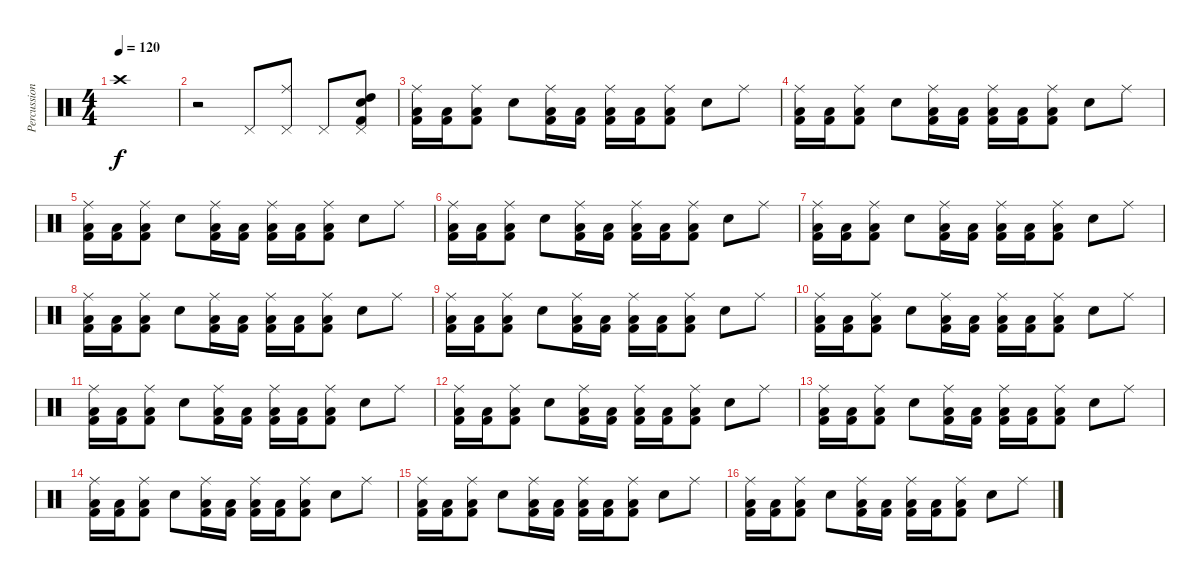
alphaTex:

\track ("Percussion" "Percussion") {instrument percussion}
\staff {score}
\articulation defaults
\ts (4 4)
\tempo 120
\clef neutral
\ks c "Crash high (hit)".1{dy f}
|
r.2 "Pedal Hi-Hat (hit)".8 ("Ride (middle)" "Pedal Hi-Hat (hit)").8 "Pedal Hi-Hat (hit)".8 ("Snare (hit) 2" "High Tom (hit)" "Pedal Hi-Hat (hit)" "Kick (hit) 2").8 |
("Ride (middle)" "Low Floor Tom (hit)" "Kick (hit) 2").16 ("Low Floor Tom (hit)" "Kick (hit) 2").16 ("Ride (middle)" "Low Floor Tom (hit)" "Kick (hit) 2").8 "Electric Snare (hit)".8 ("Ride (middle)" "Low Floor Tom (hit)" "Kick (hit) 2").16 ("Low Floor Tom (hit)" "Kick (hit) 2").16 ("Ride (middle)" "Low Floor Tom (hit)" "Kick (hit) 2").16 ("Low Floor Tom (hit)" "Kick (hit) 2").16 ("Ride (middle)" "Low Floor Tom (hit)" "Kick (hit) 2").8 "Electric Snare (hit)".8 "Ride (middle)".8 |
("Ride (middle)" "Low Floor Tom (hit)" "Kick (hit) 2").16 ("Low Floor Tom (hit)" "Kick (hit) 2").16 ("Ride (middle)" "Low Floor Tom (hit)" "Kick (hit) 2").8 "Electric Snare (hit)".8 ("Ride (middle)" "Low Floor Tom (hit)" "Kick (hit) 2").16 ("Low Floor Tom (hit)" "Kick (hit) 2").16 ("Ride (middle)" "Low Floor Tom (hit)" "Kick (hit) 2").16 ("Low Floor Tom (hit)" "Kick (hit) 2").16 ("Ride (middle)" "Low Floor Tom (hit)" "Kick (hit) 2").8 "Electric Snare (hit)".8 "Ride (middle)".8 |
("Ride (middle)" "Low Floor Tom (hit)" "Kick (hit) 2").16 ("Low Floor Tom (hit)" "Kick (hit) 2").16 ("Ride (middle)" "Low Floor Tom (hit)" "Kick (hit) 2").8 "Electric Snare (hit)".8 ("Ride (middle)" "Low Floor Tom (hit)" "Kick (hit) 2").16 ("Low Floor Tom (hit)" "Kick (hit) 2").16 ("Ride (middle)" "Low Floor Tom (hit)" "Kick (hit) 2").16 ("Low Floor Tom (hit)" "Kick (hit) 2").16 ("Ride (middle)" "Low Floor Tom (hit)" "Kick (hit) 2").8 "Electric Snare (hit)".8 "Ride (middle)".8 |
("Ride (middle)" "Low Floor Tom (hit)" "Kick (hit) 2").16 ("Low Floor Tom (hit)" "Kick (hit) 2").16 ("Ride (middle)" "Low Floor Tom (hit)" "Kick (hit) 2").8 "Electric Snare (hit)".8 ("Ride (middle)" "Low Floor Tom (hit)" "Kick (hit) 2").16 ("Low Floor Tom (hit)" "Kick (hit) 2").16 ("Ride (middle)" "Low Floor Tom (hit)" "Kick (hit) 2").16 ("Low Floor Tom (hit)" "Kick (hit) 2").16 ("Ride (middle)" "Low Floor Tom (hit)" "Kick (hit) 2").8 "Electric Snare (hit)".8 "Ride (middle)".8 |
("Ride (middle)" "Low Floor Tom (hit)" "Kick (hit) 2").16 ("Low Floor Tom (hit)" "Kick (hit) 2").16 ("Ride (middle)" "Low Floor Tom (hit)" "Kick (hit) 2").8 "Electric Snare (hit)".8 ("Ride (middle)" "Low Floor Tom (hit)" "Kick (hit) 2").16 ("Low Floor Tom (hit)" "Kick (hit) 2").16 ("Ride (middle)" "Low Floor Tom (hit)" "Kick (hit) 2").16 ("Low Floor Tom (hit)" "Kick (hit) 2").16 ("Ride (middle)" "Low Floor Tom (hit)" "Kick (hit) 2").8 "Electric Snare (hit)".8 "Ride (middle)".8 |
("Ride (middle)" "Low Floor Tom (hit)" "Kick (hit) 2").16 ("Low Floor Tom (hit)" "Kick (hit) 2").16 ("Ride (middle)" "Low Floor Tom (hit)" "Kick (hit) 2").8 "Electric Snare (hit)".8 ("Ride (middle)" "Low Floor Tom (hit)" "Kick (hit) 2").16 ("Low Floor Tom (hit)" "Kick (hit) 2").16 ("Ride (middle)" "Low Floor Tom (hit)" "Kick (hit) 2").16 ("Low Floor Tom (hit)" "Kick (hit) 2").16 ("Ride (middle)" "Low Floor Tom (hit)" "Kick (hit) 2").8 "Electric Snare (hit)".8 "Ride (middle)".8 |
("Ride (middle)" "Low Floor Tom (hit)" "Kick (hit) 2").16 ("Low Floor Tom (hit)" "Kick (hit) 2").16 ("Ride (middle)" "Low Floor Tom (hit)" "Kick (hit) 2").8 "Electric Snare (hit)".8 ("Ride (middle)" "Low Floor Tom (hit)" "Kick (hit) 2").16 ("Low Floor Tom (hit)" "Kick (hit) 2").16 ("Ride (middle)" "Low Floor Tom (hit)" "Kick (hit) 2").16 ("Low Floor Tom (hit)" "Kick (hit) 2").16 ("Ride (middle)" "Low Floor Tom (hit)" "Kick (hit) 2").8 "Electric Snare (hit)".8 "Ride (middle)".8 |
("Ride (middle)" "Low Floor Tom (hit)" "Kick (hit) 2").16 ("Low Floor Tom (hit)" "Kick (hit) 2").16 ("Ride (middle)" "Low Floor Tom (hit)" "Kick (hit) 2").8 "Electric Snare (hit)".8 ("Ride (middle)" "Low Floor Tom (hit)" "Kick (hit) 2").16 ("Low Floor Tom (hit)" "Kick (hit) 2").16 ("Ride (middle)" "Low Floor Tom (hit)" "Kick (hit) 2").16 ("Low Floor Tom (hit)" "Kick (hit) 2").16 ("Ride (middle)" "Low Floor Tom (hit)" "Kick (hit) 2").8 "Electric Snare (hit)".8 "Ride (middle)".8 |
("Ride (middle)" "Low Floor Tom (hit)" "Kick (hit) 2").16 ("Low Floor Tom (hit)" "Kick (hit) 2").16 ("Ride (middle)" "Low Floor Tom (hit)" "Kick (hit) 2").8 "Electric Snare (hit)".8 ("Ride (middle)" "Low Floor Tom (hit)" "Kick (hit) 2").16 ("Low Floor Tom (hit)" "Kick (hit) 2").16 ("Ride (middle)" "Low Floor Tom (hit)" "Kick (hit) 2").16 ("Low Floor Tom (hit)" "Kick (hit) 2").16 ("Ride (middle)" "Low Floor Tom (hit)" "Kick (hit) 2").8 "Electric Snare (hit)".8 "Ride (middle)".8 |
("Ride (middle)" "Low Floor Tom (hit)" "Kick (hit) 2").16 ("Low Floor Tom (hit)" "Kick (hit) 2").16 ("Ride (middle)" "Low Floor Tom (hit)" "Kick (hit) 2").8 "Electric Snare (hit)".8 ("Ride (middle)" "Low Floor Tom (hit)" "Kick (hit) 2").16 ("Low Floor Tom (hit)" "Kick (hit) 2").16 ("Ride (middle)" "Low Floor Tom (hit)" "Kick (hit) 2").16 ("Low Floor Tom (hit)" "Kick (hit) 2").16 ("Ride (middle)" "Low Floor Tom (hit)" "Kick (hit) 2").8 "Electric Snare (hit)".8 "Ride (middle)".8 |
("Ride (middle)" "Low Floor Tom (hit)" "Kick (hit) 2").16 ("Low Floor Tom (hit)" "Kick (hit) 2").16 ("Ride (middle)" "Low Floor Tom (hit)" "Kick (hit) 2").8 "Electric Snare (hit)".8 ("Ride (middle)" "Low Floor Tom (hit)" "Kick (hit) 2").16 ("Low Floor Tom (hit)" "Kick (hit) 2").16 ("Ride (middle)" "Low Floor Tom (hit)" "Kick (hit) 2").16 ("Low Floor Tom (hit)" "Kick (hit) 2").16 ("Ride (middle)" "Low Floor Tom (hit)" "Kick (hit) 2").8 "Electric Snare (hit)".8 "Ride (middle)".8 |
("Ride (middle)" "Low Floor Tom (hit)" "Kick (hit) 2").16 ("Low Floor Tom (hit)" "Kick (hit) 2").16 ("Ride (middle)" "Low Floor Tom (hit)" "Kick (hit) 2").8 "Electric Snare (hit)".8 ("Ride (middle)" "Low Floor Tom (hit)" "Kick (hit) 2").16 ("Low Floor Tom (hit)" "Kick (hit) 2").16 ("Ride (middle)" "Low Floor Tom (hit)" "Kick (hit) 2").16 ("Low Floor Tom (hit)" "Kick (hit) 2").16 ("Ride (middle)" "Low Floor Tom (hit)" "Kick (hit) 2").8 "Electric Snare (hit)".8 "Ride (middle)".8 |
("Ride (middle)" "Low Floor Tom (hit)" "Kick (hit) 2").16 ("Low Floor Tom (hit)" "Kick (hit) 2").16 ("Ride (middle)" "Low Floor Tom (hit)" "Kick (hit) 2").8 "Electric Snare (hit)".8 ("Ride (middle)" "Low Floor Tom (hit)" "Kick (hit) 2").16 ("Low Floor Tom (hit)" "Kick (hit) 2").16 ("Ride (middle)" "Low Floor Tom (hit)" "Kick (hit) 2").16 ("Low Floor Tom (hit)" "Kick (hit) 2").16 ("Ride (middle)" "Low Floor Tom (hit)" "Kick (hit) 2").8 "Electric Snare (hit)".8 "Ride (middle)".8 |
("Ride (middle)" "Low Floor Tom (hit)" "Kick (hit) 2").16 ("Low Floor Tom (hit)" "Kick (hit) 2").16 ("Ride (middle)" "Low Floor Tom (hit)" "Kick (hit) 2").8 "Electric Snare (hit)".8 ("Ride (middle)" "Low Floor Tom (hit)" "Kick (hit) 2").16 ("Low Floor Tom (hit)" "Kick (hit) 2").16 ("Ride (middle)" "Low Floor Tom (hit)" "Kick (hit) 2").16 ("Low Floor Tom (hit)" "Kick (hit) 2").16 ("Ride (middle)" "Low Floor Tom (hit)" "Kick (hit) 2").8 "Electric Snare (hit)".8 "Ride (middle)".8
